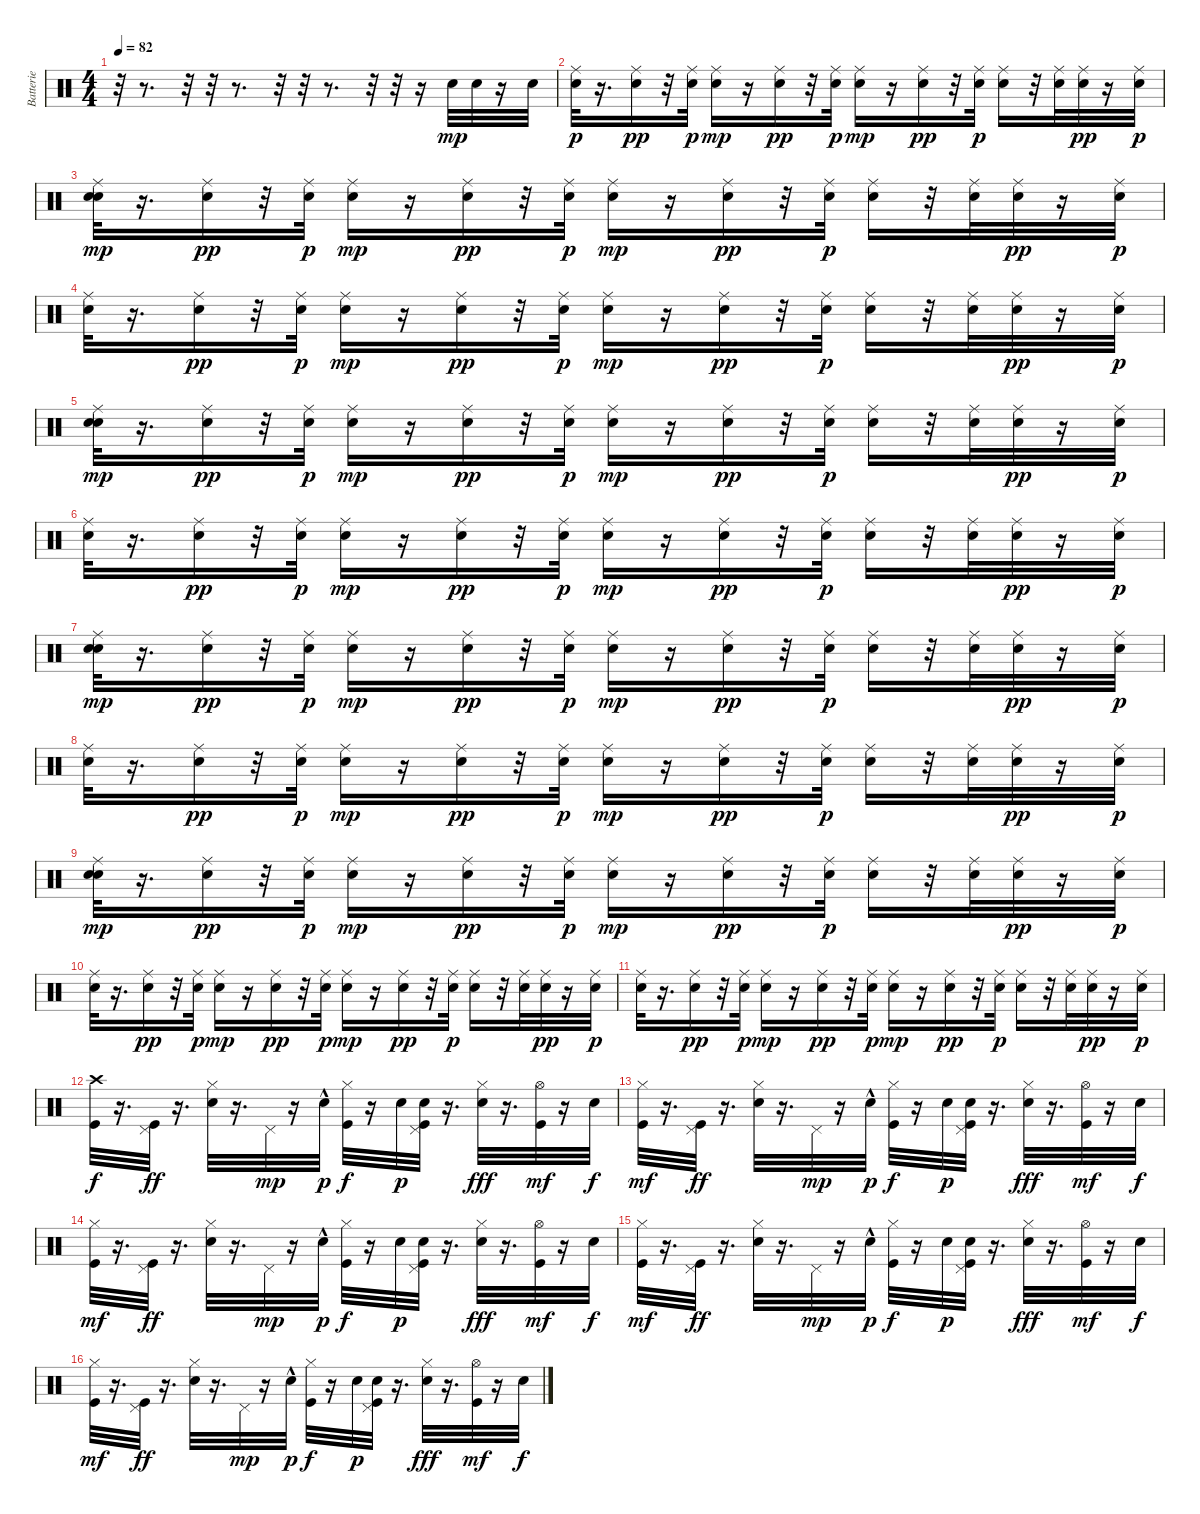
\track ("Batterie" "Batterie") {instrument percussion}
\staff {score}
\articulation defaults
\ts (4 4)
\tempo 82
\clef neutral
\ks c
r.32{dy mp} r.8{d} r.32 r.32 r.8{d} r.32 r.32 r.8{d} r.32 r.32 r.16 "Electric Snare (hit)".32 "Electric Snare (hit)".32 r.16 "Electric Snare (hit)".32 |
("Ride (middle)" "Electric Snare (hit)").32{dy p} r.16{d} ("Ride (middle)" "Electric Snare (hit)").16{dy pp} r.32 ("Ride (middle)" "Electric Snare (hit)").32{dy p} ("Ride (middle)" "Electric Snare (hit)").16{dy mp} r.16 ("Ride (middle)" "Electric Snare (hit)").16{dy pp} r.32 ("Ride (middle)" "Electric Snare (hit)").32{dy p} ("Ride (middle)" "Electric Snare (hit)").16{dy mp} r.16 ("Ride (middle)" "Electric Snare (hit)").16{dy pp} r.32 ("Ride (middle)" "Electric Snare (hit)").32{dy p} ("Ride (middle)" "Electric Snare (hit)").16 r.32 ("Ride (middle)" "Electric Snare (hit)").32 ("Ride (middle)" "Electric Snare (hit)").32{dy pp} r.16 ("Ride (middle)" "Electric Snare (hit)").32{dy p} |
("Ride (middle)" "Electric Snare (hit)" "Electric Snare (hit)").32{dy mp} r.16{d} ("Ride (middle)" "Electric Snare (hit)").16{dy pp} r.32 ("Ride (middle)" "Electric Snare (hit)").32{dy p} ("Ride (middle)" "Electric Snare (hit)").16{dy mp} r.16 ("Ride (middle)" "Electric Snare (hit)").16{dy pp} r.32 ("Ride (middle)" "Electric Snare (hit)").32{dy p} ("Ride (middle)" "Electric Snare (hit)").16{dy mp} r.16 ("Ride (middle)" "Electric Snare (hit)").16{dy pp} r.32 ("Ride (middle)" "Electric Snare (hit)").32{dy p} ("Ride (middle)" "Electric Snare (hit)").16 r.32 ("Ride (middle)" "Electric Snare (hit)").32 ("Ride (middle)" "Electric Snare (hit)").32{dy pp} r.16 ("Ride (middle)" "Electric Snare (hit)").32{dy p} |
("Ride (middle)" "Electric Snare (hit)").32 r.16{d} ("Ride (middle)" "Electric Snare (hit)").16{dy pp} r.32 ("Ride (middle)" "Electric Snare (hit)").32{dy p} ("Ride (middle)" "Electric Snare (hit)").16{dy mp} r.16 ("Ride (middle)" "Electric Snare (hit)").16{dy pp} r.32 ("Ride (middle)" "Electric Snare (hit)").32{dy p} ("Ride (middle)" "Electric Snare (hit)").16{dy mp} r.16 ("Ride (middle)" "Electric Snare (hit)").16{dy pp} r.32 ("Ride (middle)" "Electric Snare (hit)").32{dy p} ("Ride (middle)" "Electric Snare (hit)").16 r.32 ("Ride (middle)" "Electric Snare (hit)").32 ("Ride (middle)" "Electric Snare (hit)").32{dy pp} r.16 ("Ride (middle)" "Electric Snare (hit)").32{dy p} |
("Ride (middle)" "Electric Snare (hit)" "Electric Snare (hit)").32{dy mp} r.16{d} ("Ride (middle)" "Electric Snare (hit)").16{dy pp} r.32 ("Ride (middle)" "Electric Snare (hit)").32{dy p} ("Ride (middle)" "Electric Snare (hit)").16{dy mp} r.16 ("Ride (middle)" "Electric Snare (hit)").16{dy pp} r.32 ("Ride (middle)" "Electric Snare (hit)").32{dy p} ("Ride (middle)" "Electric Snare (hit)").16{dy mp} r.16 ("Ride (middle)" "Electric Snare (hit)").16{dy pp} r.32 ("Ride (middle)" "Electric Snare (hit)").32{dy p} ("Ride (middle)" "Electric Snare (hit)").16 r.32 ("Ride (middle)" "Electric Snare (hit)").32 ("Ride (middle)" "Electric Snare (hit)").32{dy pp} r.16 ("Ride (middle)" "Electric Snare (hit)").32{dy p} |
("Ride (middle)" "Electric Snare (hit)").32 r.16{d} ("Ride (middle)" "Electric Snare (hit)").16{dy pp} r.32 ("Ride (middle)" "Electric Snare (hit)").32{dy p} ("Ride (middle)" "Electric Snare (hit)").16{dy mp} r.16 ("Ride (middle)" "Electric Snare (hit)").16{dy pp} r.32 ("Ride (middle)" "Electric Snare (hit)").32{dy p} ("Ride (middle)" "Electric Snare (hit)").16{dy mp} r.16 ("Ride (middle)" "Electric Snare (hit)").16{dy pp} r.32 ("Ride (middle)" "Electric Snare (hit)").32{dy p} ("Ride (middle)" "Electric Snare (hit)").16 r.32 ("Ride (middle)" "Electric Snare (hit)").32 ("Ride (middle)" "Electric Snare (hit)").32{dy pp} r.16 ("Ride (middle)" "Electric Snare (hit)").32{dy p} |
("Ride (middle)" "Electric Snare (hit)" "Electric Snare (hit)").32{dy mp} r.16{d} ("Ride (middle)" "Electric Snare (hit)").16{dy pp} r.32 ("Ride (middle)" "Electric Snare (hit)").32{dy p} ("Ride (middle)" "Electric Snare (hit)").16{dy mp} r.16 ("Ride (middle)" "Electric Snare (hit)").16{dy pp} r.32 ("Ride (middle)" "Electric Snare (hit)").32{dy p} ("Ride (middle)" "Electric Snare (hit)").16{dy mp} r.16 ("Ride (middle)" "Electric Snare (hit)").16{dy pp} r.32 ("Ride (middle)" "Electric Snare (hit)").32{dy p} ("Ride (middle)" "Electric Snare (hit)").16 r.32 ("Ride (middle)" "Electric Snare (hit)").32 ("Ride (middle)" "Electric Snare (hit)").32{dy pp} r.16 ("Ride (middle)" "Electric Snare (hit)").32{dy p} |
("Ride (middle)" "Electric Snare (hit)").32 r.16{d} ("Ride (middle)" "Electric Snare (hit)").16{dy pp} r.32 ("Ride (middle)" "Electric Snare (hit)").32{dy p} ("Ride (middle)" "Electric Snare (hit)").16{dy mp} r.16 ("Ride (middle)" "Electric Snare (hit)").16{dy pp} r.32 ("Ride (middle)" "Electric Snare (hit)").32{dy p} ("Ride (middle)" "Electric Snare (hit)").16{dy mp} r.16 ("Ride (middle)" "Electric Snare (hit)").16{dy pp} r.32 ("Ride (middle)" "Electric Snare (hit)").32{dy p} ("Ride (middle)" "Electric Snare (hit)").16 r.32 ("Ride (middle)" "Electric Snare (hit)").32 ("Ride (middle)" "Electric Snare (hit)").32{dy pp} r.16 ("Ride (middle)" "Electric Snare (hit)").32{dy p} |
("Ride (middle)" "Electric Snare (hit)" "Electric Snare (hit)").32{dy mp} r.16{d} ("Ride (middle)" "Electric Snare (hit)").16{dy pp} r.32 ("Ride (middle)" "Electric Snare (hit)").32{dy p} ("Ride (middle)" "Electric Snare (hit)").16{dy mp} r.16 ("Ride (middle)" "Electric Snare (hit)").16{dy pp} r.32 ("Ride (middle)" "Electric Snare (hit)").32{dy p} ("Ride (middle)" "Electric Snare (hit)").16{dy mp} r.16 ("Ride (middle)" "Electric Snare (hit)").16{dy pp} r.32 ("Ride (middle)" "Electric Snare (hit)").32{dy p} ("Ride (middle)" "Electric Snare (hit)").16 r.32 ("Ride (middle)" "Electric Snare (hit)").32 ("Ride (middle)" "Electric Snare (hit)").32{dy pp} r.16 ("Ride (middle)" "Electric Snare (hit)").32{dy p} |
("Ride (middle)" "Electric Snare (hit)").32 r.16{d} ("Ride (middle)" "Electric Snare (hit)").16{dy pp} r.32 ("Ride (middle)" "Electric Snare (hit)").32{dy p} ("Ride (middle)" "Electric Snare (hit)").16{dy mp} r.16 ("Ride (middle)" "Electric Snare (hit)").16{dy pp} r.32 ("Ride (middle)" "Electric Snare (hit)").32{dy p} ("Ride (middle)" "Electric Snare (hit)").16{dy mp} r.16 ("Ride (middle)" "Electric Snare (hit)").16{dy pp} r.32 ("Ride (middle)" "Electric Snare (hit)").32{dy p} ("Ride (middle)" "Electric Snare (hit)").16 r.32 ("Ride (middle)" "Electric Snare (hit)").32 ("Ride (middle)" "Electric Snare (hit)").32{dy pp} r.16 ("Ride (middle)" "Electric Snare (hit)").32{dy p} |
("Ride (middle)" "Electric Snare (hit)").32 r.16{d} ("Ride (middle)" "Electric Snare (hit)").16{dy pp} r.32 ("Ride (middle)" "Electric Snare (hit)").32{dy p} ("Ride (middle)" "Electric Snare (hit)").16{dy mp} r.16 ("Ride (middle)" "Electric Snare (hit)").16{dy pp} r.32 ("Ride (middle)" "Electric Snare (hit)").32{dy p} ("Ride (middle)" "Electric Snare (hit)").16{dy mp} r.16 ("Ride (middle)" "Electric Snare (hit)").16{dy pp} r.32 ("Ride (middle)" "Electric Snare (hit)").32{dy p} ("Ride (middle)" "Electric Snare (hit)").16 r.32 ("Ride (middle)" "Electric Snare (hit)").32 ("Ride (middle)" "Electric Snare (hit)").32{dy pp} r.16 ("Ride (middle)" "Electric Snare (hit)").32{dy p} |
("Kick (hit)" "Crash high (hit)").32{dy f} r.16{d} ("Pedal Hi-Hat (hit)" "Kick (hit)").32{dy ff} r.16{d} ("Electric Snare (hit)" "Hi-Hat (closed)").32 r.16{d} "Pedal Hi-Hat (hit)".32{dy mp} r.16 "Electric Snare (hit)"{hac}.32{dy p} ("Hi-Hat (closed)" "Kick (hit)").32{dy f} r.16 "Electric Snare (hit)".32{dy p} ("Electric Snare (hit)" "Pedal Hi-Hat (hit)" "Kick (hit)").32 r.16{d} ("Electric Snare (hit)" "Hi-Hat (closed)").32{dy fff} r.16{d} ("Hi-Hat (open)" "Kick (hit)").32{dy mf} r.16 "Electric Snare (hit)".32{dy f} |
("Hi-Hat (closed)" "Kick (hit)").32{dy mf} r.16{d} ("Pedal Hi-Hat (hit)" "Kick (hit)").32{dy ff} r.16{d} ("Electric Snare (hit)" "Hi-Hat (closed)").32 r.16{d} "Pedal Hi-Hat (hit)".32{dy mp} r.16 "Electric Snare (hit)"{hac}.32{dy p} ("Hi-Hat (closed)" "Kick (hit)").32{dy f} r.16 "Electric Snare (hit)".32{dy p} ("Electric Snare (hit)" "Pedal Hi-Hat (hit)" "Kick (hit)").32 r.16{d} ("Electric Snare (hit)" "Hi-Hat (closed)").32{dy fff} r.16{d} ("Hi-Hat (open)" "Kick (hit)").32{dy mf} r.16 "Electric Snare (hit)".32{dy f} |
("Hi-Hat (closed)" "Kick (hit)").32{dy mf} r.16{d} ("Pedal Hi-Hat (hit)" "Kick (hit)").32{dy ff} r.16{d} ("Electric Snare (hit)" "Hi-Hat (closed)").32 r.16{d} "Pedal Hi-Hat (hit)".32{dy mp} r.16 "Electric Snare (hit)"{hac}.32{dy p} ("Hi-Hat (closed)" "Kick (hit)").32{dy f} r.16 "Electric Snare (hit)".32{dy p} ("Electric Snare (hit)" "Pedal Hi-Hat (hit)" "Kick (hit)").32 r.16{d} ("Electric Snare (hit)" "Hi-Hat (closed)").32{dy fff} r.16{d} ("Hi-Hat (open)" "Kick (hit)").32{dy mf} r.16 "Electric Snare (hit)".32{dy f} |
("Hi-Hat (closed)" "Kick (hit)").32{dy mf} r.16{d} ("Pedal Hi-Hat (hit)" "Kick (hit)").32{dy ff} r.16{d} ("Electric Snare (hit)" "Hi-Hat (closed)").32 r.16{d} "Pedal Hi-Hat (hit)".32{dy mp} r.16 "Electric Snare (hit)"{hac}.32{dy p} ("Hi-Hat (closed)" "Kick (hit)").32{dy f} r.16 "Electric Snare (hit)".32{dy p} ("Electric Snare (hit)" "Pedal Hi-Hat (hit)" "Kick (hit)").32 r.16{d} ("Electric Snare (hit)" "Hi-Hat (closed)").32{dy fff} r.16{d} ("Hi-Hat (open)" "Kick (hit)").32{dy mf} r.16 "Electric Snare (hit)".32{dy f} |
("Hi-Hat (closed)" "Kick (hit)").32{dy mf} r.16{d} ("Pedal Hi-Hat (hit)" "Kick (hit)").32{dy ff} r.16{d} ("Electric Snare (hit)" "Hi-Hat (closed)").32 r.16{d} "Pedal Hi-Hat (hit)".32{dy mp} r.16 "Electric Snare (hit)"{hac}.32{dy p} ("Hi-Hat (closed)" "Kick (hit)").32{dy f} r.16 "Electric Snare (hit)".32{dy p} ("Electric Snare (hit)" "Pedal Hi-Hat (hit)" "Kick (hit)").32 r.16{d} ("Electric Snare (hit)" "Hi-Hat (closed)").32{dy fff} r.16{d} ("Hi-Hat (open)" "Kick (hit)").32{dy mf} r.16 "Electric Snare (hit)".32{dy f}
